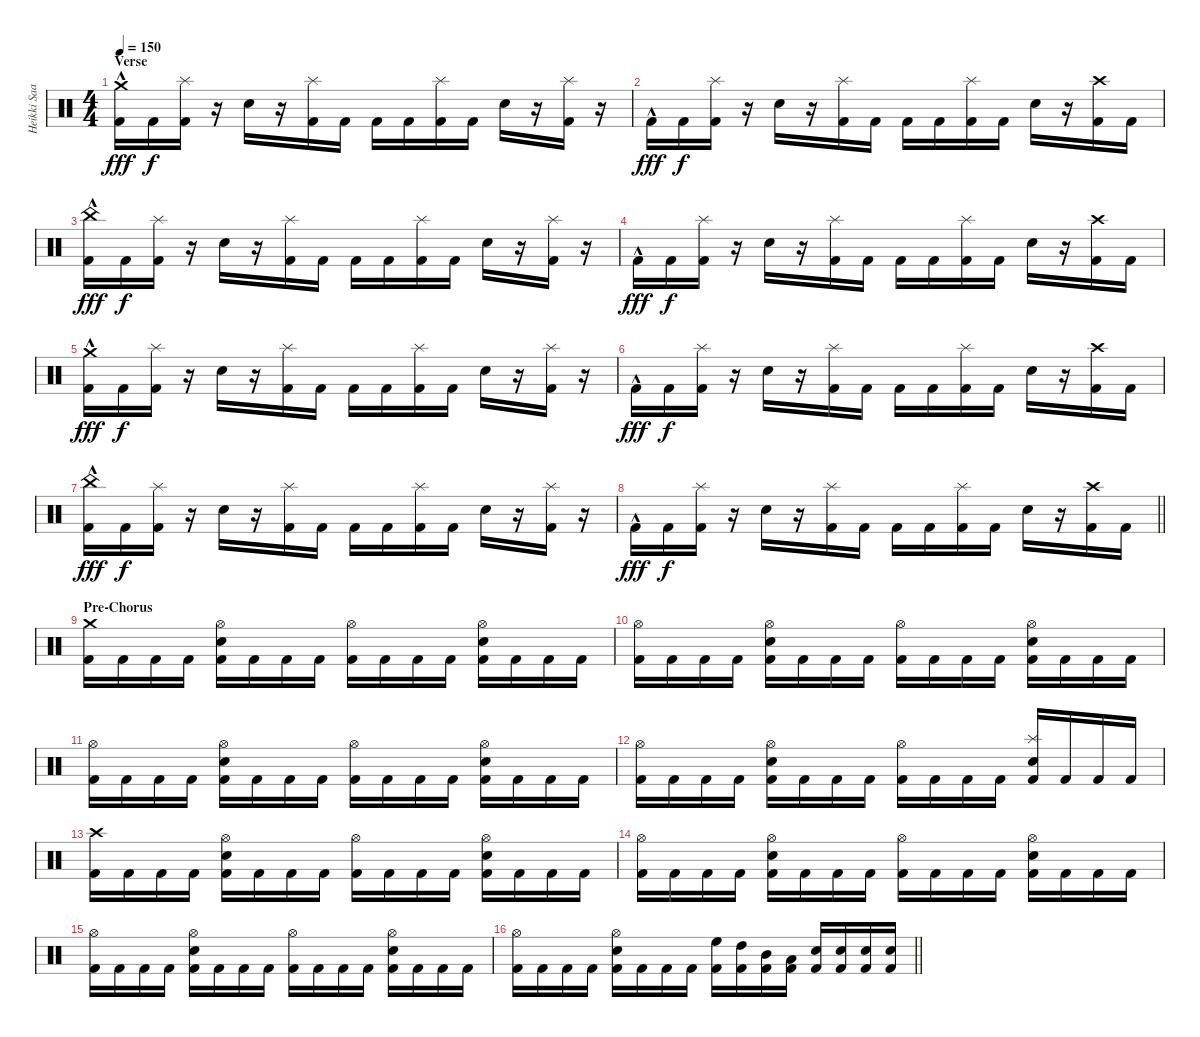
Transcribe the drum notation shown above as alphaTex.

\track ("Heikki Saari" "Heikki Saa") {instrument percussion}
\staff {score}
\articulation defaults
\ts (4 4)
\section ("" "Verse")
\tempo 150
\clef neutral
\ks c
("Crash medium (hit)"{hac} "Kick (hit) 2").16{dy fff} "Kick (hit) 2".16{dy f} ("Kick (hit) 2" "Splash (hit)").16 r.16 "Electric Snare (hit)".16 r.16 ("Kick (hit) 2" "Splash (hit)").16 "Kick (hit) 2".16 "Kick (hit) 2".16 "Kick (hit) 2".16 ("Kick (hit) 2" "Splash (hit)").16 "Kick (hit) 2".16 "Electric Snare (hit)".16 r.16 ("Kick (hit) 2" "Splash (hit)").16 r.16 |
"Kick (hit) 2"{hac}.16{dy fff} "Kick (hit) 2".16{dy f} ("Kick (hit) 2" "Splash (hit)").16 r.16 "Electric Snare (hit)".16 r.16 ("Kick (hit) 2" "Splash (hit)").16 "Kick (hit) 2".16 "Kick (hit) 2".16 "Kick (hit) 2".16 ("Kick (hit) 2" "Splash (hit)").16 "Kick (hit) 2".16 "Electric Snare (hit)".16 r.16 ("Kick (hit) 2" "Crash high (hit)").16 "Kick (hit) 2".16 |
("Kick (hit) 2"{hac} "China (hit)").16{dy fff} "Kick (hit) 2".16{dy f} ("Kick (hit) 2" "Splash (hit)").16 r.16 "Electric Snare (hit)".16 r.16 ("Kick (hit) 2" "Splash (hit)").16 "Kick (hit) 2".16 "Kick (hit) 2".16 "Kick (hit) 2".16 ("Kick (hit) 2" "Splash (hit)").16 "Kick (hit) 2".16 "Electric Snare (hit)".16 r.16 ("Kick (hit) 2" "Splash (hit)").16 r.16 |
"Kick (hit) 2"{hac}.16{dy fff} "Kick (hit) 2".16{dy f} ("Kick (hit) 2" "Splash (hit)").16 r.16 "Electric Snare (hit)".16 r.16 ("Kick (hit) 2" "Splash (hit)").16 "Kick (hit) 2".16 "Kick (hit) 2".16 "Kick (hit) 2".16 ("Kick (hit) 2" "Splash (hit)").16 "Kick (hit) 2".16 "Electric Snare (hit)".16 r.16 ("Kick (hit) 2" "Crash high (hit)").16 "Kick (hit) 2".16 |
("Crash medium (hit)"{hac} "Kick (hit) 2").16{dy fff} "Kick (hit) 2".16{dy f} ("Kick (hit) 2" "Splash (hit)").16 r.16 "Electric Snare (hit)".16 r.16 ("Kick (hit) 2" "Splash (hit)").16 "Kick (hit) 2".16 "Kick (hit) 2".16 "Kick (hit) 2".16 ("Kick (hit) 2" "Splash (hit)").16 "Kick (hit) 2".16 "Electric Snare (hit)".16 r.16 ("Kick (hit) 2" "Splash (hit)").16 r.16 |
"Kick (hit) 2"{hac}.16{dy fff} "Kick (hit) 2".16{dy f} ("Kick (hit) 2" "Splash (hit)").16 r.16 "Electric Snare (hit)".16 r.16 ("Kick (hit) 2" "Splash (hit)").16 "Kick (hit) 2".16 "Kick (hit) 2".16 "Kick (hit) 2".16 ("Kick (hit) 2" "Splash (hit)").16 "Kick (hit) 2".16 "Electric Snare (hit)".16 r.16 ("Kick (hit) 2" "Crash high (hit)").16 "Kick (hit) 2".16 |
("Kick (hit) 2"{hac} "China (hit)").16{dy fff} "Kick (hit) 2".16{dy f} ("Kick (hit) 2" "Splash (hit)").16 r.16 "Electric Snare (hit)".16 r.16 ("Kick (hit) 2" "Splash (hit)").16 "Kick (hit) 2".16 "Kick (hit) 2".16 "Kick (hit) 2".16 ("Kick (hit) 2" "Splash (hit)").16 "Kick (hit) 2".16 "Electric Snare (hit)".16 r.16 ("Kick (hit) 2" "Splash (hit)").16 r.16 |
\barLineRight lightlight "Kick (hit) 2"{hac}.16{dy fff} "Kick (hit) 2".16{dy f}
("Kick (hit) 2" "Splash (hit)").16 r.16 "Electric Snare (hit)".16 r.16 ("Kick (hit) 2" "Splash (hit)").16 "Kick (hit) 2".16 "Kick (hit) 2".16 "Kick (hit) 2".16 ("Kick (hit) 2" "Splash (hit)").16 "Kick (hit) 2".16 "Electric Snare (hit)".16 r.16 ("Kick (hit) 2" "Crash high (hit)").16 "Kick (hit) 2".16 |
\section ("" "Pre-Chorus")
("Kick (hit) 2" "Crash medium (hit)").16 "Kick (hit) 2".16 "Kick (hit) 2".16 "Kick (hit) 2".16 ("Kick (hit) 2" "Electric Snare (hit)" "Hi-Hat (open)").16 "Kick (hit) 2".16 "Kick (hit) 2".16 "Kick (hit) 2".16 ("Kick (hit) 2" "Hi-Hat (open)").16 "Kick (hit) 2".16 "Kick (hit) 2".16 "Kick (hit) 2".16 ("Kick (hit) 2" "Electric Snare (hit)" "Hi-Hat (open)").16 "Kick (hit) 2".16 "Kick (hit) 2".16 "Kick (hit) 2".16 |
("Kick (hit) 2" "Hi-Hat (open)").16 "Kick (hit) 2".16 "Kick (hit) 2".16 "Kick (hit) 2".16 ("Kick (hit) 2" "Electric Snare (hit)" "Hi-Hat (open)").16 "Kick (hit) 2".16 "Kick (hit) 2".16 "Kick (hit) 2".16 ("Kick (hit) 2" "Hi-Hat (open)").16 "Kick (hit) 2".16 "Kick (hit) 2".16 "Kick (hit) 2".16 ("Kick (hit) 2" "Electric Snare (hit)" "Hi-Hat (open)").16 "Kick (hit) 2".16 "Kick (hit) 2".16 "Kick (hit) 2".16 |
("Kick (hit) 2" "Hi-Hat (open)").16 "Kick (hit) 2".16 "Kick (hit) 2".16 "Kick (hit) 2".16 ("Kick (hit) 2" "Electric Snare (hit)" "Hi-Hat (open)").16 "Kick (hit) 2".16 "Kick (hit) 2".16 "Kick (hit) 2".16 ("Kick (hit) 2" "Hi-Hat (open)").16 "Kick (hit) 2".16 "Kick (hit) 2".16 "Kick (hit) 2".16 ("Kick (hit) 2" "Electric Snare (hit)" "Hi-Hat (open)").16 "Kick (hit) 2".16 "Kick (hit) 2".16 "Kick (hit) 2".16 |
("Kick (hit) 2" "Hi-Hat (open)").16 "Kick (hit) 2".16 "Kick (hit) 2".16 "Kick (hit) 2".16 ("Kick (hit) 2" "Electric Snare (hit)" "Hi-Hat (open)").16 "Kick (hit) 2".16 "Kick (hit) 2".16 "Kick (hit) 2".16 ("Kick (hit) 2" "Hi-Hat (open)").16 "Kick (hit) 2".16 "Kick (hit) 2".16 "Kick (hit) 2".16 ("Kick (hit) 2" "Electric Snare (hit)" "Splash (hit)").16 "Kick (hit) 2".16 "Kick (hit) 2".16 "Kick (hit) 2".16 |
("Kick (hit) 2" "Crash high (hit)").16 "Kick (hit) 2".16 "Kick (hit) 2".16 "Kick (hit) 2".16 ("Kick (hit) 2" "Electric Snare (hit)" "Hi-Hat (open)").16 "Kick (hit) 2".16 "Kick (hit) 2".16 "Kick (hit) 2".16 ("Kick (hit) 2" "Hi-Hat (open)").16 "Kick (hit) 2".16 "Kick (hit) 2".16 "Kick (hit) 2".16 ("Kick (hit) 2" "Electric Snare (hit)" "Hi-Hat (open)").16 "Kick (hit) 2".16 "Kick (hit) 2".16 "Kick (hit) 2".16 |
("Kick (hit) 2" "Hi-Hat (open)").16 "Kick (hit) 2".16 "Kick (hit) 2".16 "Kick (hit) 2".16 ("Kick (hit) 2" "Electric Snare (hit)" "Hi-Hat (open)").16 "Kick (hit) 2".16 "Kick (hit) 2".16 "Kick (hit) 2".16 ("Kick (hit) 2" "Hi-Hat (open)").16 "Kick (hit) 2".16 "Kick (hit) 2".16 "Kick (hit) 2".16 ("Kick (hit) 2" "Electric Snare (hit)" "Hi-Hat (open)").16 "Kick (hit) 2".16 "Kick (hit) 2".16 "Kick (hit) 2".16 |
("Kick (hit) 2" "Hi-Hat (open)").16 "Kick (hit) 2".16 "Kick (hit) 2".16 "Kick (hit) 2".16 ("Kick (hit) 2" "Electric Snare (hit)" "Hi-Hat (open)").16 "Kick (hit) 2".16 "Kick (hit) 2".16 "Kick (hit) 2".16 ("Kick (hit) 2" "Hi-Hat (open)").16 "Kick (hit) 2".16 "Kick (hit) 2".16 "Kick (hit) 2".16 ("Kick (hit) 2" "Electric Snare (hit)" "Hi-Hat (open)").16 "Kick (hit) 2".16 "Kick (hit) 2".16 "Kick (hit) 2".16 |
\barLineRight lightlight
("Kick (hit) 2" "Hi-Hat (open)").16 "Kick (hit) 2".16 "Kick (hit) 2".16 "Kick (hit) 2".16 ("Kick (hit) 2" "Electric Snare (hit)" "Hi-Hat (open)").16 "Kick (hit) 2".16 "Kick (hit) 2".16 "Kick (hit) 2".16 ("Kick (hit) 2" "High Floor Tom (hit)").16 ("Kick (hit) 2" "High Tom (hit)").16 ("Kick (hit) 2" "Mid Tom (hit)").16 ("Kick (hit) 2" "Low Tom (hit)").16 ("Kick (hit) 2" "Electric Snare (hit)").16 ("Kick (hit) 2" "Electric Snare (hit)").16 ("Kick (hit) 2" "Electric Snare (hit)").16 ("Kick (hit) 2" "Electric Snare (hit)").16
